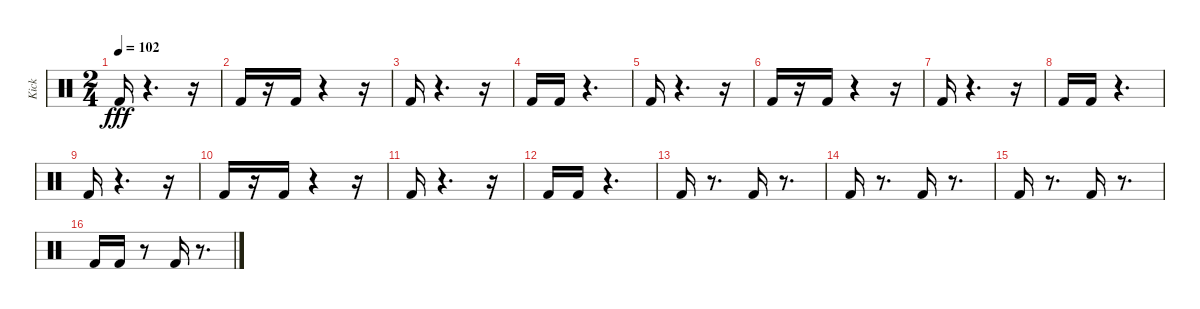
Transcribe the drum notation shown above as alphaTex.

\track ("Kick" "Kick") {instrument percussion}
\staff {score}
\articulation defaults
\ts (2 4)
\tempo 102
\clef neutral
\ks c "Kick (hit) 2".16{dy fff}
r.4{d} r.16 |
"Kick (hit) 2".16 r.16 "Kick (hit) 2".16 r.4 r.16 |
"Kick (hit) 2".16 r.4{d} r.16 |
"Kick (hit) 2".16 "Kick (hit) 2".16 r.4{d} |
"Kick (hit) 2".16 r.4{d} r.16 |
"Kick (hit) 2".16 r.16 "Kick (hit) 2".16 r.4 r.16 |
"Kick (hit) 2".16 r.4{d} r.16 |
"Kick (hit) 2".16 "Kick (hit) 2".16 r.4{d} |
"Kick (hit) 2".16 r.4{d} r.16 |
"Kick (hit) 2".16 r.16 "Kick (hit) 2".16 r.4 r.16 |
"Kick (hit) 2".16 r.4{d} r.16 |
"Kick (hit) 2".16 "Kick (hit) 2".16 r.4{d} |
"Kick (hit) 2".16 r.8{d} "Kick (hit) 2".16 r.8{d} |
"Kick (hit) 2".16 r.8{d} "Kick (hit) 2".16 r.8{d} |
"Kick (hit) 2".16 r.8{d} "Kick (hit) 2".16 r.8{d} |
"Kick (hit) 2".16 "Kick (hit) 2".16 r.8 "Kick (hit) 2".16 r.8{d}
